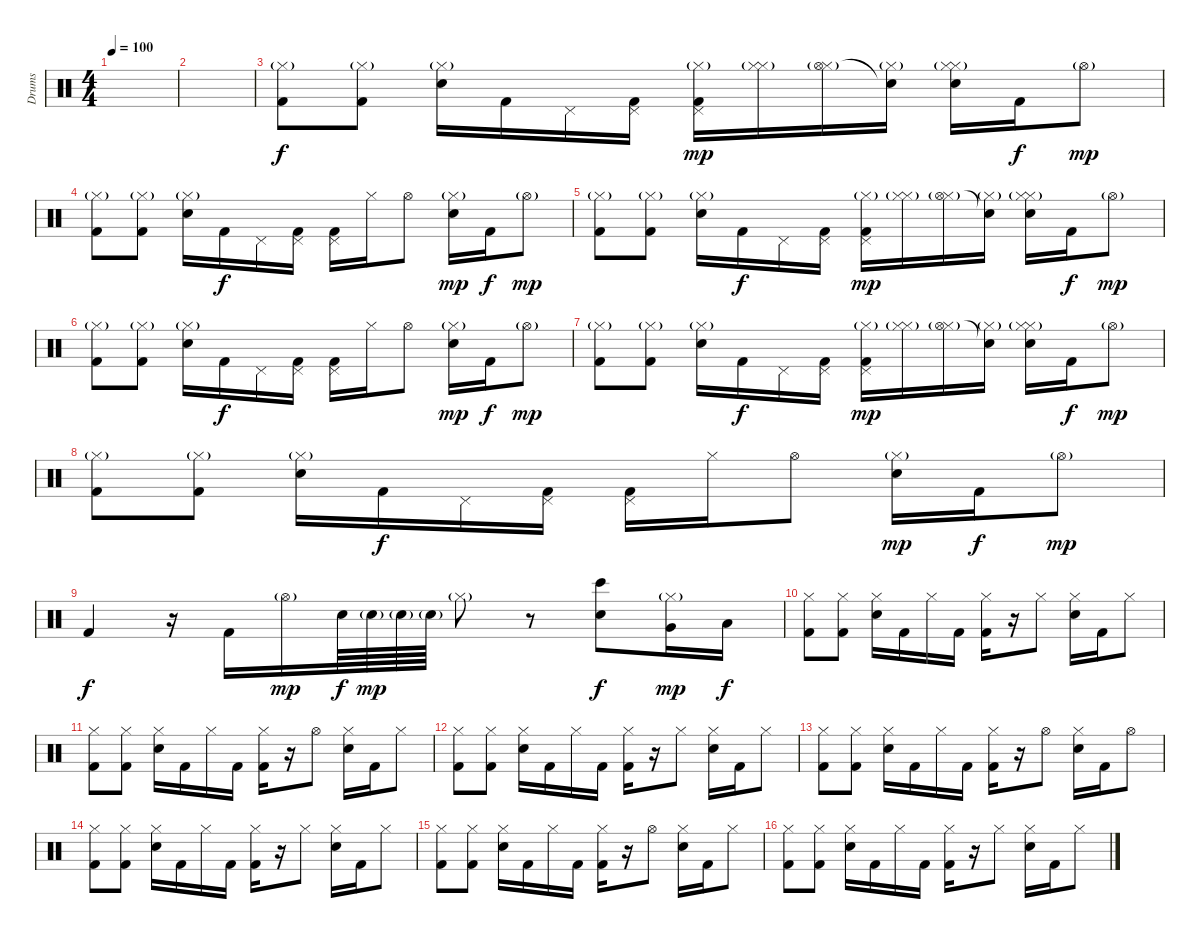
\track ("Drums" "Drums") {instrument percussion}
\staff {score}
\articulation defaults
\ts (4 4)
\tempo 100
\clef neutral
\ks c
|
|
("Hi-Hat (closed)"{g} "Kick (hit) 2").8 ("Hi-Hat (closed)"{g} "Kick (hit) 2").8 ("Hi-Hat (closed)"{g} "Electric Snare (hit)").16 "Kick (hit) 2".16{dy f} "Pedal Hi-Hat (hit)".16 ("Pedal Hi-Hat (hit)" "Kick (hit) 2").16 ("Hi-Hat (closed)"{g} "Pedal Hi-Hat (hit)" "Kick (hit) 2").16{dy mp} ("Hi-Hat (closed)"{g} "Hi-Hat (closed)").16 ("Hi-Hat (closed)"{g} "Hi-Hat (open)").16 ("Hi-Hat (closed)"{g} "Snare (hit)"{t}).16 ("Hi-Hat (closed)"{g} "Hi-Hat (closed)"{g} "Electric Snare (hit)").16 "Kick (hit) 2".16{dy f} "Hi-Hat (open)"{g}.8{dy mp} |
("Hi-Hat (closed)"{g} "Kick (hit) 2").8 ("Hi-Hat (closed)"{g} "Kick (hit) 2").8 ("Hi-Hat (closed)"{g} "Electric Snare (hit)").16 "Kick (hit) 2".16{dy f} "Pedal Hi-Hat (hit)".16 ("Pedal Hi-Hat (hit)" "Kick (hit) 2").16 ("Pedal Hi-Hat (hit)" "Kick (hit) 2").16 "Hi-Hat (closed)".16 "Hi-Hat (open)".8 ("Hi-Hat (closed)"{g} "Electric Snare (hit)").16{dy mp} "Kick (hit) 2".16{dy f} "Hi-Hat (open)"{g}.8{dy mp} |
("Hi-Hat (closed)"{g} "Kick (hit) 2").8 ("Hi-Hat (closed)"{g} "Kick (hit) 2").8 ("Hi-Hat (closed)"{g} "Electric Snare (hit)").16 "Kick (hit) 2".16{dy f} "Pedal Hi-Hat (hit)".16 ("Pedal Hi-Hat (hit)" "Kick (hit) 2").16 ("Hi-Hat (closed)"{g} "Pedal Hi-Hat (hit)" "Kick (hit) 2").16{dy mp} ("Hi-Hat (closed)"{g} "Hi-Hat (closed)").16 ("Hi-Hat (closed)"{g} "Hi-Hat (open)").16 ("Hi-Hat (closed)"{g} "Snare (hit)"{t}).16 ("Hi-Hat (closed)"{g} "Hi-Hat (closed)"{g} "Electric Snare (hit)").16 "Kick (hit) 2".16{dy f} "Hi-Hat (open)"{g}.8{dy mp} |
("Hi-Hat (closed)"{g} "Kick (hit) 2").8 ("Hi-Hat (closed)"{g} "Kick (hit) 2").8 ("Hi-Hat (closed)"{g} "Electric Snare (hit)").16 "Kick (hit) 2".16{dy f} "Pedal Hi-Hat (hit)".16 ("Pedal Hi-Hat (hit)" "Kick (hit) 2").16 ("Pedal Hi-Hat (hit)" "Kick (hit) 2").16 "Hi-Hat (closed)".16 "Hi-Hat (open)".8 ("Hi-Hat (closed)"{g} "Electric Snare (hit)").16{dy mp} "Kick (hit) 2".16{dy f} "Hi-Hat (open)"{g}.8{dy mp} |
("Hi-Hat (closed)"{g} "Kick (hit) 2").8 ("Hi-Hat (closed)"{g} "Kick (hit) 2").8 ("Hi-Hat (closed)"{g} "Electric Snare (hit)").16 "Kick (hit) 2".16{dy f} "Pedal Hi-Hat (hit)".16 ("Pedal Hi-Hat (hit)" "Kick (hit) 2").16 ("Hi-Hat (closed)"{g} "Pedal Hi-Hat (hit)" "Kick (hit) 2").16{dy mp} ("Hi-Hat (closed)"{g} "Hi-Hat (closed)").16 ("Hi-Hat (closed)"{g} "Hi-Hat (open)").16 ("Hi-Hat (closed)"{g} "Snare (hit)"{t}).16 ("Hi-Hat (closed)"{g} "Hi-Hat (closed)"{g} "Electric Snare (hit)").16 "Kick (hit) 2".16{dy f} "Hi-Hat (open)"{g}.8{dy mp} |
("Hi-Hat (closed)"{g} "Kick (hit) 2").8 ("Hi-Hat (closed)"{g} "Kick (hit) 2").8 ("Hi-Hat (closed)"{g} "Electric Snare (hit)").16 "Kick (hit) 2".16{dy f} "Pedal Hi-Hat (hit)".16 ("Pedal Hi-Hat (hit)" "Kick (hit) 2").16 ("Pedal Hi-Hat (hit)" "Kick (hit) 2").16 "Hi-Hat (closed)".16 "Hi-Hat (open)".8 ("Hi-Hat (closed)"{g} "Electric Snare (hit)").16{dy mp} "Kick (hit) 2".16{dy f} "Hi-Hat (open)"{g}.8{dy mp} |
"Kick (hit) 2".4{dy f} r.16 "Kick (hit) 2".16 "Hi-Hat (open)"{g}.16{dy mp} "Electric Snare (hit)".64{dy f} "Electric Snare (hit)"{g}.64{dy mp} "Electric Snare (hit)"{g}.64 "Electric Snare (hit)"{g}.64 "Hi-Hat (closed)"{g}.8 r.8 ("Bongo High (hit)" "Electric Snare (hit)").8{dy f} ("Hi-Hat (closed)"{g} "Very Low Tom (hit)").16{dy mp} "Low Floor Tom (hit)".16{dy f} |
("Hi-Hat (closed)" "Kick (hit) 2").8 ("Hi-Hat (closed)" "Kick (hit) 2").8 ("Hi-Hat (closed)" "Electric Snare (hit)").16 "Kick (hit) 2".16 "Hi-Hat (closed)".16 "Kick (hit) 2".16 ("Hi-Hat (closed)" "Kick (hit) 2").16 r.16 "Hi-Hat (closed)".8 ("Hi-Hat (closed)" "Electric Snare (hit)").16 "Kick (hit) 2".16 "Hi-Hat (closed)".8 |
("Hi-Hat (closed)" "Kick (hit) 2").8 ("Hi-Hat (closed)" "Kick (hit) 2").8 ("Hi-Hat (closed)" "Electric Snare (hit)").16 "Kick (hit) 2".16 "Hi-Hat (closed)".16 "Kick (hit) 2".16 ("Hi-Hat (closed)" "Kick (hit) 2").16 r.16 "Hi-Hat (open)".8 ("Hi-Hat (closed)" "Electric Snare (hit)").16 "Kick (hit) 2".16 "Hi-Hat (closed)".8 |
("Hi-Hat (closed)" "Kick (hit) 2").8 ("Hi-Hat (closed)" "Kick (hit) 2").8 ("Hi-Hat (closed)" "Electric Snare (hit)").16 "Kick (hit) 2".16 "Hi-Hat (closed)".16 "Kick (hit) 2".16 ("Hi-Hat (closed)" "Kick (hit) 2").16 r.16 "Hi-Hat (closed)".8 ("Hi-Hat (closed)" "Electric Snare (hit)").16 "Kick (hit) 2".16 "Hi-Hat (closed)".8 |
("Hi-Hat (closed)" "Kick (hit) 2").8 ("Hi-Hat (closed)" "Kick (hit) 2").8 ("Hi-Hat (closed)" "Electric Snare (hit)").16 "Kick (hit) 2".16 "Hi-Hat (closed)".16 "Kick (hit) 2".16 ("Hi-Hat (closed)" "Kick (hit) 2").16 r.16 "Hi-Hat (open)".8 ("Hi-Hat (closed)" "Electric Snare (hit)").16 "Kick (hit) 2".16 "Hi-Hat (open)".8 |
("Hi-Hat (closed)" "Kick (hit) 2").8 ("Hi-Hat (closed)" "Kick (hit) 2").8 ("Hi-Hat (closed)" "Electric Snare (hit)").16 "Kick (hit) 2".16 "Hi-Hat (closed)".16 "Kick (hit) 2".16 ("Hi-Hat (closed)" "Kick (hit) 2").16 r.16 "Hi-Hat (closed)".8 ("Hi-Hat (closed)" "Electric Snare (hit)").16 "Kick (hit) 2".16 "Hi-Hat (closed)".8 |
("Hi-Hat (closed)" "Kick (hit) 2").8 ("Hi-Hat (closed)" "Kick (hit) 2").8 ("Hi-Hat (closed)" "Electric Snare (hit)").16 "Kick (hit) 2".16 "Hi-Hat (closed)".16 "Kick (hit) 2".16 ("Hi-Hat (closed)" "Kick (hit) 2").16 r.16 "Hi-Hat (open)".8 ("Hi-Hat (closed)" "Electric Snare (hit)").16 "Kick (hit) 2".16 "Hi-Hat (closed)".8 |
("Hi-Hat (closed)" "Kick (hit) 2").8 ("Hi-Hat (closed)" "Kick (hit) 2").8 ("Hi-Hat (closed)" "Electric Snare (hit)").16 "Kick (hit) 2".16 "Hi-Hat (closed)".16 "Kick (hit) 2".16 ("Hi-Hat (closed)" "Kick (hit) 2").16 r.16 "Hi-Hat (closed)".8 ("Hi-Hat (closed)" "Electric Snare (hit)").16 "Kick (hit) 2".16 "Hi-Hat (closed)".8
